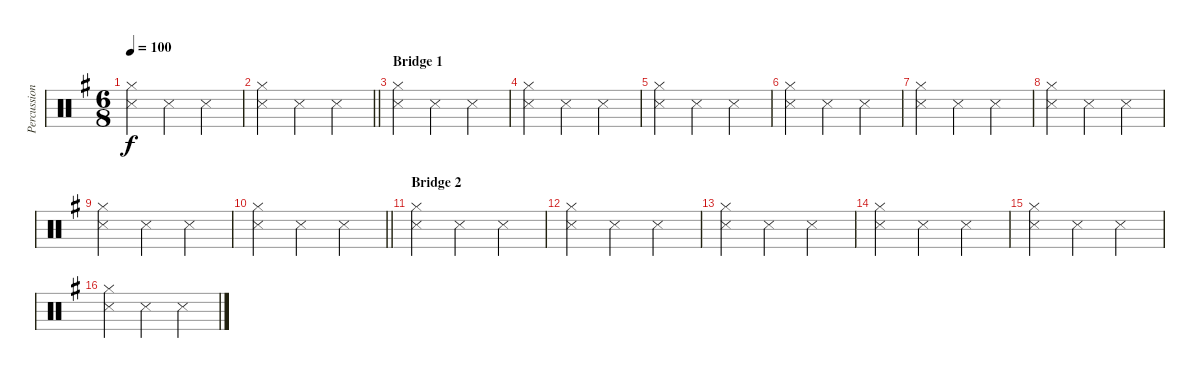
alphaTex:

\track ("Percussion" "Percussion") {mute instrument percussion}
\staff {score}
\articulation defaults
\ts (6 8)
\tempo 100
\clef neutral
\ks g
("Hi-Hat (closed)" "Snare (side stick) 3").4{dy f} "Snare (side stick) 3".4 "Snare (side stick) 3".4 |
\barLineRight lightlight
("Hi-Hat (closed)" "Snare (side stick) 3").4 "Snare (side stick) 3".4 "Snare (side stick) 3".4 |
\section ("" "Bridge 1")
("Hi-Hat (closed)" "Snare (side stick) 3").4 "Snare (side stick) 3".4 "Snare (side stick) 3".4 |
("Hi-Hat (closed)" "Snare (side stick) 3").4 "Snare (side stick) 3".4 "Snare (side stick) 3".4 |
("Hi-Hat (closed)" "Snare (side stick) 3").4 "Snare (side stick) 3".4 "Snare (side stick) 3".4 |
("Hi-Hat (closed)" "Snare (side stick) 3").4 "Snare (side stick) 3".4 "Snare (side stick) 3".4 |
("Hi-Hat (closed)" "Snare (side stick) 3").4 "Snare (side stick) 3".4 "Snare (side stick) 3".4 |
("Hi-Hat (closed)" "Snare (side stick) 3").4 "Snare (side stick) 3".4 "Snare (side stick) 3".4 |
("Hi-Hat (closed)" "Snare (side stick) 3").4 "Snare (side stick) 3".4 "Snare (side stick) 3".4 |
\barLineRight lightlight
("Hi-Hat (closed)" "Snare (side stick) 3").4 "Snare (side stick) 3".4 "Snare (side stick) 3".4 |
\section ("" "Bridge 2")
("Hi-Hat (closed)" "Snare (side stick) 3").4 "Snare (side stick) 3".4 "Snare (side stick) 3".4 |
("Hi-Hat (closed)" "Snare (side stick) 3").4 "Snare (side stick) 3".4 "Snare (side stick) 3".4 |
("Hi-Hat (closed)" "Snare (side stick) 3").4 "Snare (side stick) 3".4 "Snare (side stick) 3".4 |
("Hi-Hat (closed)" "Snare (side stick) 3").4 "Snare (side stick) 3".4 "Snare (side stick) 3".4 |
("Hi-Hat (closed)" "Snare (side stick) 3").4 "Snare (side stick) 3".4 "Snare (side stick) 3".4 |
("Hi-Hat (closed)" "Snare (side stick) 3").4 "Snare (side stick) 3".4 "Snare (side stick) 3".4
